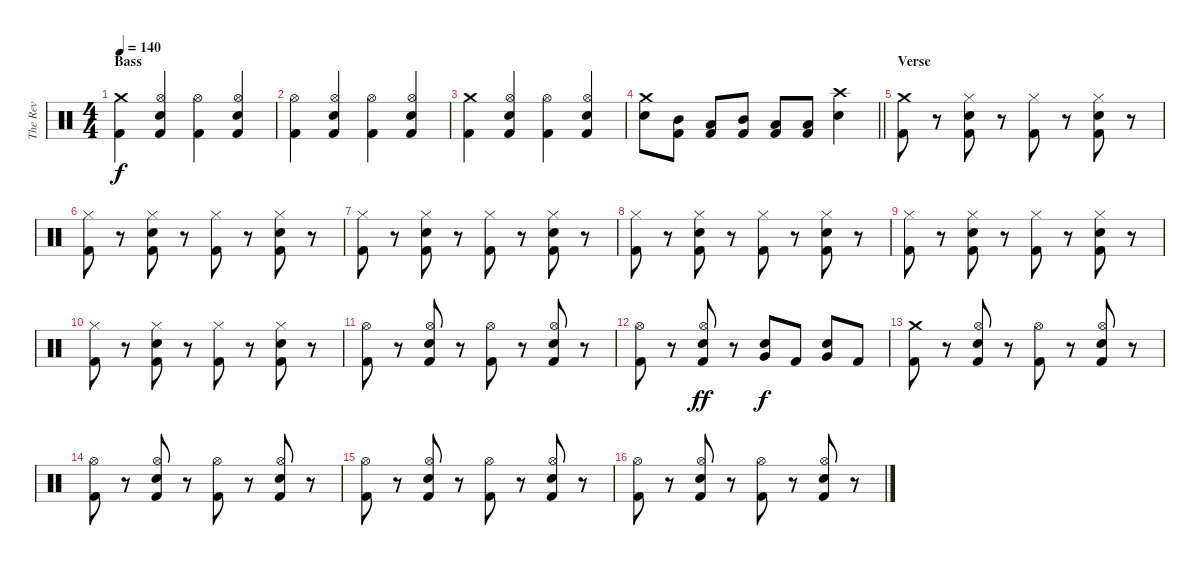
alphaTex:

\track ("The Rev" "The Rev") {instrument percussion}
\staff {score}
\articulation defaults
\ts (4 4)
\section ("" "Bass")
\tempo 140
\clef neutral
\ks c
("Crash medium (hit)" "Kick (hit) 2").4{dy f} ("Hi-Hat (open)" "Electric Snare (hit)" "Kick (hit) 2").4 ("Hi-Hat (open)" "Kick (hit) 2").4 ("Hi-Hat (open)" "Electric Snare (hit)" "Kick (hit) 2").4 |
("Hi-Hat (open)" "Kick (hit) 2").4 ("Hi-Hat (open)" "Electric Snare (hit)" "Kick (hit) 2").4 ("Hi-Hat (open)" "Kick (hit) 2").4 ("Hi-Hat (open)" "Electric Snare (hit)" "Kick (hit) 2").4 |
("Crash medium (hit)" "Kick (hit) 2").4 ("Hi-Hat (open)" "Electric Snare (hit)" "Kick (hit) 2").4 ("Hi-Hat (open)" "Kick (hit) 2").4 ("Hi-Hat (open)" "Electric Snare (hit)" "Kick (hit) 2").4 |
\barLineRight lightlight
("Crash medium (hit)" "Electric Snare (hit)").8 ("Mid Tom (hit)" "Kick (hit) 2").8 ("Low Tom (hit)" "Kick (hit) 2").8 ("Mid Tom (hit)" "Kick (hit) 2").8 ("Low Tom (hit)" "Kick (hit) 2").8 ("Low Floor Tom (hit)" "Kick (hit) 2").8 ("Crash high (hit)" "Electric Snare (hit)").4 |
\section ("" "Verse")
("Crash medium (hit)" "Kick (hit) 2").8 r.8 ("Hi-Hat (closed)" "Electric Snare (hit)" "Kick (hit) 2").8 r.8 ("Hi-Hat (closed)" "Kick (hit) 2").8 r.8 ("Hi-Hat (closed)" "Electric Snare (hit)" "Kick (hit) 2").8 r.8 |
("Hi-Hat (closed)" "Kick (hit) 2").8 r.8 ("Hi-Hat (closed)" "Electric Snare (hit)" "Kick (hit) 2").8 r.8 ("Hi-Hat (closed)" "Kick (hit) 2").8 r.8 ("Hi-Hat (closed)" "Electric Snare (hit)" "Kick (hit) 2").8 r.8 |
("Hi-Hat (closed)" "Kick (hit) 2").8 r.8 ("Hi-Hat (closed)" "Electric Snare (hit)" "Kick (hit) 2").8 r.8 ("Hi-Hat (closed)" "Kick (hit) 2").8 r.8 ("Hi-Hat (closed)" "Electric Snare (hit)" "Kick (hit) 2").8 r.8 |
("Hi-Hat (closed)" "Kick (hit) 2").8 r.8 ("Hi-Hat (closed)" "Electric Snare (hit)" "Kick (hit) 2").8 r.8 ("Hi-Hat (closed)" "Kick (hit) 2").8 r.8 ("Hi-Hat (closed)" "Electric Snare (hit)" "Kick (hit) 2").8 r.8 |
("Hi-Hat (closed)" "Kick (hit) 2").8 r.8 ("Hi-Hat (closed)" "Electric Snare (hit)" "Kick (hit) 2").8 r.8 ("Hi-Hat (closed)" "Kick (hit) 2").8 r.8 ("Hi-Hat (closed)" "Electric Snare (hit)" "Kick (hit) 2").8 r.8 |
("Hi-Hat (closed)" "Kick (hit) 2").8 r.8 ("Hi-Hat (closed)" "Electric Snare (hit)" "Kick (hit) 2").8 r.8 ("Hi-Hat (closed)" "Kick (hit) 2").8 r.8 ("Hi-Hat (closed)" "Electric Snare (hit)" "Kick (hit) 2").8 r.8 |
("Hi-Hat (open)" "Kick (hit) 2").8 r.8 ("Hi-Hat (open)" "Electric Snare (hit)" "Kick (hit) 2").8 r.8 ("Hi-Hat (open)" "Kick (hit) 2").8 r.8 ("Hi-Hat (open)" "Electric Snare (hit)" "Kick (hit) 2").8 r.8 |
("Hi-Hat (open)" "Kick (hit) 2").8 r.8 ("Hi-Hat (open)" "Electric Snare (hit)" "Kick (hit) 2").8{dy ff} r.8 ("Electric Snare (hit)" "Very Low Tom (hit)").8{dy f} "Kick (hit) 2".8 ("Electric Snare (hit)" "Very Low Tom (hit)").8 "Kick (hit) 2".8 |
("Crash medium (hit)" "Kick (hit) 2").8 r.8 ("Hi-Hat (open)" "Electric Snare (hit)" "Kick (hit) 2").8 r.8 ("Hi-Hat (open)" "Kick (hit) 2").8 r.8 ("Hi-Hat (open)" "Electric Snare (hit)" "Kick (hit) 2").8 r.8 |
("Hi-Hat (open)" "Kick (hit) 2").8 r.8 ("Hi-Hat (open)" "Electric Snare (hit)" "Kick (hit) 2").8 r.8 ("Hi-Hat (open)" "Kick (hit) 2").8 r.8 ("Hi-Hat (open)" "Electric Snare (hit)" "Kick (hit) 2").8 r.8 |
("Hi-Hat (open)" "Kick (hit) 2").8 r.8 ("Hi-Hat (open)" "Electric Snare (hit)" "Kick (hit) 2").8 r.8 ("Hi-Hat (open)" "Kick (hit) 2").8 r.8 ("Hi-Hat (open)" "Electric Snare (hit)" "Kick (hit) 2").8 r.8 |
("Hi-Hat (open)" "Kick (hit) 2").8 r.8 ("Hi-Hat (open)" "Electric Snare (hit)" "Kick (hit) 2").8 r.8 ("Hi-Hat (open)" "Kick (hit) 2").8 r.8 ("Hi-Hat (open)" "Electric Snare (hit)" "Kick (hit) 2").8 r.8
